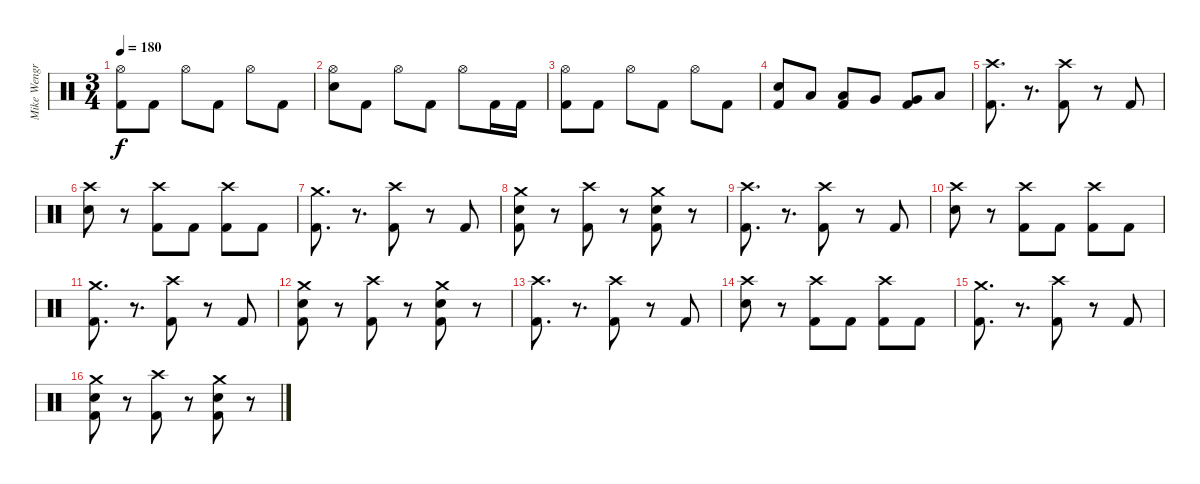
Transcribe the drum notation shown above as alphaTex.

\track ("Mike Wengren" "Mike Wengr") {instrument percussion}
\staff {score}
\articulation defaults
\ts (3 4)
\tempo 180
\clef neutral
\ks c
("Hi-Hat (open)" "Kick (hit) 2").8{dy f} "Kick (hit) 2".8 "Hi-Hat (open)".8 "Kick (hit) 2".8 "Hi-Hat (open)".8 "Kick (hit) 2".8 |
("Hi-Hat (open)" "Snare (hit) 2").8 "Kick (hit) 2".8 "Hi-Hat (open)".8 "Kick (hit) 2".8 "Hi-Hat (open)".8 "Kick (hit) 2".16 "Kick (hit) 2".16 |
("Hi-Hat (open)" "Kick (hit) 2").8 "Kick (hit) 2".8 "Hi-Hat (open)".8 "Kick (hit) 2".8 "Hi-Hat (open)".8 "Kick (hit) 2".8 |
("Snare (hit) 2" "Kick (hit) 2").8 "Low Tom (hit)".8 ("Low Tom (hit)" "Kick (hit) 2").8 "Very Low Tom (hit)".8 ("Very Low Tom (hit)" "Kick (hit) 2").8 "Low Floor Tom (hit)".8 |
("Crash high (hit)" "Kick (hit) 2").8{d} r.8{d} ("Crash high (hit)" "Kick (hit) 2").8 r.8 "Kick (hit) 2".8 |
("Crash high (hit)" "Snare (hit) 2").8 r.8 ("Crash high (hit)" "Kick (hit) 2").8 "Kick (hit) 2".8 ("Crash high (hit)" "Kick (hit) 2").8 "Kick (hit) 2".8 |
("Crash medium (hit)" "Kick (hit) 2").8{d} r.8{d} ("Crash high (hit)" "Kick (hit) 2").8 r.8 "Kick (hit) 2".8 |
("Crash medium (hit)" "Snare (hit) 2" "Kick (hit) 2").8 r.8 ("Crash high (hit)" "Kick (hit) 2").8 r.8 ("Crash medium (hit)" "Snare (hit) 2" "Kick (hit) 2").8 r.8 |
("Crash high (hit)" "Kick (hit) 2").8{d} r.8{d} ("Crash high (hit)" "Kick (hit) 2").8 r.8 "Kick (hit) 2".8 |
("Crash high (hit)" "Snare (hit) 2").8 r.8 ("Crash high (hit)" "Kick (hit) 2").8 "Kick (hit) 2".8 ("Crash high (hit)" "Kick (hit) 2").8 "Kick (hit) 2".8 |
("Crash medium (hit)" "Kick (hit) 2").8{d} r.8{d} ("Crash high (hit)" "Kick (hit) 2").8 r.8 "Kick (hit) 2".8 |
("Crash medium (hit)" "Snare (hit) 2" "Kick (hit) 2").8 r.8 ("Crash high (hit)" "Kick (hit) 2").8 r.8 ("Crash medium (hit)" "Snare (hit) 2" "Kick (hit) 2").8 r.8 |
("Crash high (hit)" "Kick (hit) 2").8{d} r.8{d} ("Crash high (hit)" "Kick (hit) 2").8 r.8 "Kick (hit) 2".8 |
("Crash high (hit)" "Snare (hit) 2").8 r.8 ("Crash high (hit)" "Kick (hit) 2").8 "Kick (hit) 2".8 ("Crash high (hit)" "Kick (hit) 2").8 "Kick (hit) 2".8 |
("Crash medium (hit)" "Kick (hit) 2").8{d} r.8{d} ("Crash high (hit)" "Kick (hit) 2").8 r.8 "Kick (hit) 2".8 |
("Crash medium (hit)" "Snare (hit) 2" "Kick (hit) 2").8 r.8 ("Crash high (hit)" "Kick (hit) 2").8 r.8 ("Crash medium (hit)" "Snare (hit) 2" "Kick (hit) 2").8 r.8
